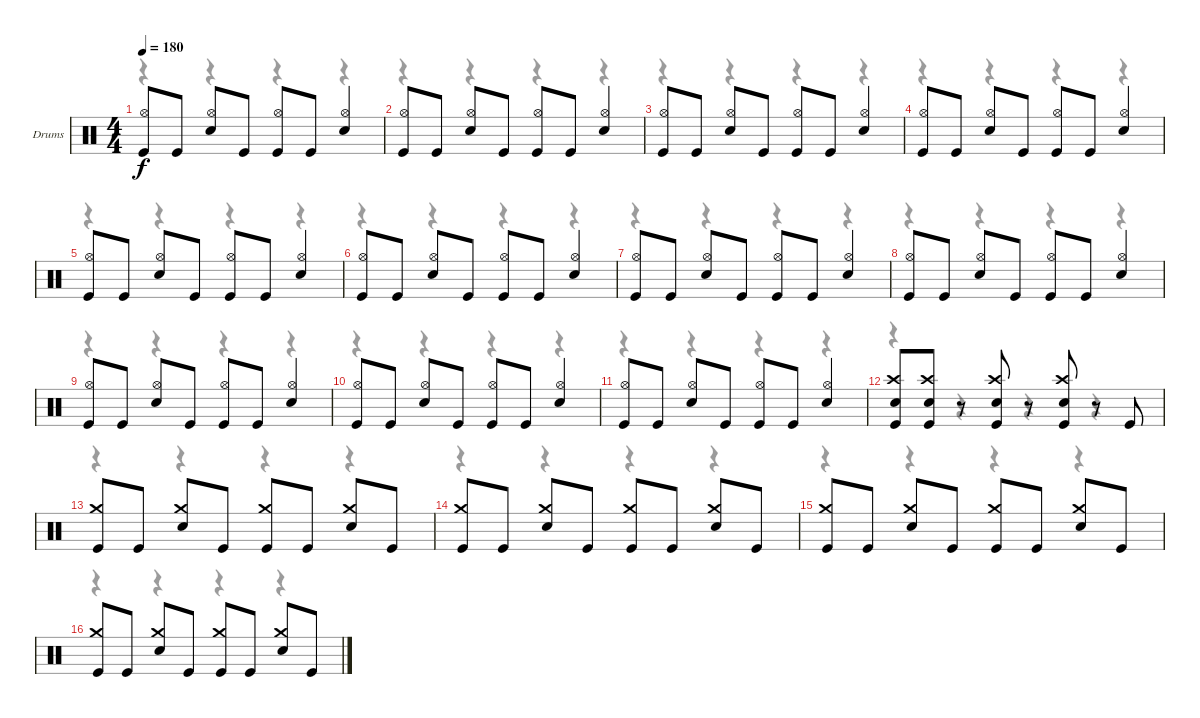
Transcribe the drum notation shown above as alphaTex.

\bracketExtendMode groupsimilarinstruments
\firstSystemTrackNameOrientation horizontal
\otherSystemsTrackNameOrientation horizontal
\track ("Drumkit" "Drums") {instrument percussion}
\staff {score}
\articulation defaults
\voice
\ts (4 4)
\tempo 180
\clef neutral
\ks c
("Kick (hit)" "Hi-Hat (open)").8{dy f} "Kick (hit)".8 ("Snare (hit) 2" "Hi-Hat (open)").8 "Kick (hit)".8 ("Kick (hit)" "Hi-Hat (open)").8 "Kick (hit)".8 ("Snare (hit) 2" "Hi-Hat (open)").4 |
("Kick (hit)" "Hi-Hat (open)").8 "Kick (hit)".8 ("Snare (hit) 2" "Hi-Hat (open)").8 "Kick (hit)".8 ("Kick (hit)" "Hi-Hat (open)").8 "Kick (hit)".8 ("Snare (hit) 2" "Hi-Hat (open)").4 |
("Kick (hit)" "Hi-Hat (open)").8 "Kick (hit)".8 ("Snare (hit) 2" "Hi-Hat (open)").8 "Kick (hit)".8 ("Kick (hit)" "Hi-Hat (open)").8 "Kick (hit)".8 ("Snare (hit) 2" "Hi-Hat (open)").4 |
("Kick (hit)" "Hi-Hat (open)").8 "Kick (hit)".8 ("Snare (hit) 2" "Hi-Hat (open)").8 "Kick (hit)".8 ("Kick (hit)" "Hi-Hat (open)").8 "Kick (hit)".8 ("Snare (hit) 2" "Hi-Hat (open)").4 |
("Kick (hit)" "Hi-Hat (open)").8 "Kick (hit)".8 ("Snare (hit) 2" "Hi-Hat (open)").8 "Kick (hit)".8 ("Kick (hit)" "Hi-Hat (open)").8 "Kick (hit)".8 ("Snare (hit) 2" "Hi-Hat (open)").4 |
("Kick (hit)" "Hi-Hat (open)").8 "Kick (hit)".8 ("Snare (hit) 2" "Hi-Hat (open)").8 "Kick (hit)".8 ("Kick (hit)" "Hi-Hat (open)").8 "Kick (hit)".8 ("Snare (hit) 2" "Hi-Hat (open)").4 |
("Kick (hit)" "Hi-Hat (open)").8 "Kick (hit)".8 ("Snare (hit) 2" "Hi-Hat (open)").8 "Kick (hit)".8 ("Kick (hit)" "Hi-Hat (open)").8 "Kick (hit)".8 ("Snare (hit) 2" "Hi-Hat (open)").4 |
("Kick (hit)" "Hi-Hat (open)").8 "Kick (hit)".8 ("Snare (hit) 2" "Hi-Hat (open)").8 "Kick (hit)".8 ("Kick (hit)" "Hi-Hat (open)").8 "Kick (hit)".8 ("Snare (hit) 2" "Hi-Hat (open)").4 |
("Kick (hit)" "Hi-Hat (open)").8 "Kick (hit)".8 ("Snare (hit) 2" "Hi-Hat (open)").8 "Kick (hit)".8 ("Kick (hit)" "Hi-Hat (open)").8 "Kick (hit)".8 ("Snare (hit) 2" "Hi-Hat (open)").4 |
("Kick (hit)" "Hi-Hat (open)").8 "Kick (hit)".8 ("Snare (hit) 2" "Hi-Hat (open)").8 "Kick (hit)".8 ("Kick (hit)" "Hi-Hat (open)").8 "Kick (hit)".8 ("Snare (hit) 2" "Hi-Hat (open)").4 |
("Kick (hit)" "Hi-Hat (open)").8 "Kick (hit)".8 ("Snare (hit) 2" "Hi-Hat (open)").8 "Kick (hit)".8 ("Kick (hit)" "Hi-Hat (open)").8 "Kick (hit)".8 ("Snare (hit) 2" "Hi-Hat (open)").4 |
("Snare (hit) 2" "Kick (hit)" "Crash high (hit)").8 ("Snare (hit) 2" "Kick (hit)" "Crash high (hit)").8 r.8 ("Snare (hit) 2" "Kick (hit)" "Crash high (hit)").8 r.8 ("Snare (hit) 2" "Kick (hit)" "Crash high (hit)").8 r.8 "Kick (hit)".8 |
("Crash medium (hit)" "Kick (hit)").8 "Kick (hit)".8 ("Crash medium (hit)" "Snare (hit) 2").8 "Kick (hit)".8 ("Crash medium (hit)" "Kick (hit)").8 "Kick (hit)".8 ("Crash medium (hit)" "Snare (hit) 2").8 "Kick (hit)".8 |
("Crash medium (hit)" "Kick (hit)").8 "Kick (hit)".8 ("Crash medium (hit)" "Snare (hit) 2").8 "Kick (hit)".8 ("Crash medium (hit)" "Kick (hit)").8 "Kick (hit)".8 ("Crash medium (hit)" "Snare (hit) 2").8 "Kick (hit)".8 |
("Crash medium (hit)" "Kick (hit)").8 "Kick (hit)".8 ("Crash medium (hit)" "Snare (hit) 2").8 "Kick (hit)".8 ("Crash medium (hit)" "Kick (hit)").8 "Kick (hit)".8 ("Crash medium (hit)" "Snare (hit) 2").8 "Kick (hit)".8 |
("Crash medium (hit)" "Kick (hit)").8 "Kick (hit)".8 ("Crash medium (hit)" "Snare (hit) 2").8 "Kick (hit)".8 ("Crash medium (hit)" "Kick (hit)").8 "Kick (hit)".8 ("Crash medium (hit)" "Snare (hit) 2").8 "Kick (hit)".8
\voice
\clef neutral
\ottava regular
\simile none
\ks c
r.4{dy mf} r.4 r.4 r.4 |
r.4 r.4 r.4 r.4 |
r.4 r.4 r.4 r.4 |
r.4 r.4 r.4 r.4 |
r.4 r.4 r.4 r.4 |
r.4 r.4 r.4 r.4 |
r.4 r.4 r.4 r.4 |
r.4 r.4 r.4 r.4 |
r.4 r.4 r.4 r.4 |
r.4 r.4 r.4 r.4 |
r.4 r.4 r.4 r.4 |
r.4 r.4 r.4 r.4 |
r.4 r.4 r.4 r.4 |
r.4 r.4 r.4 r.4 |
r.4 r.4 r.4 r.4 |
r.4 r.4 r.4 r.4
